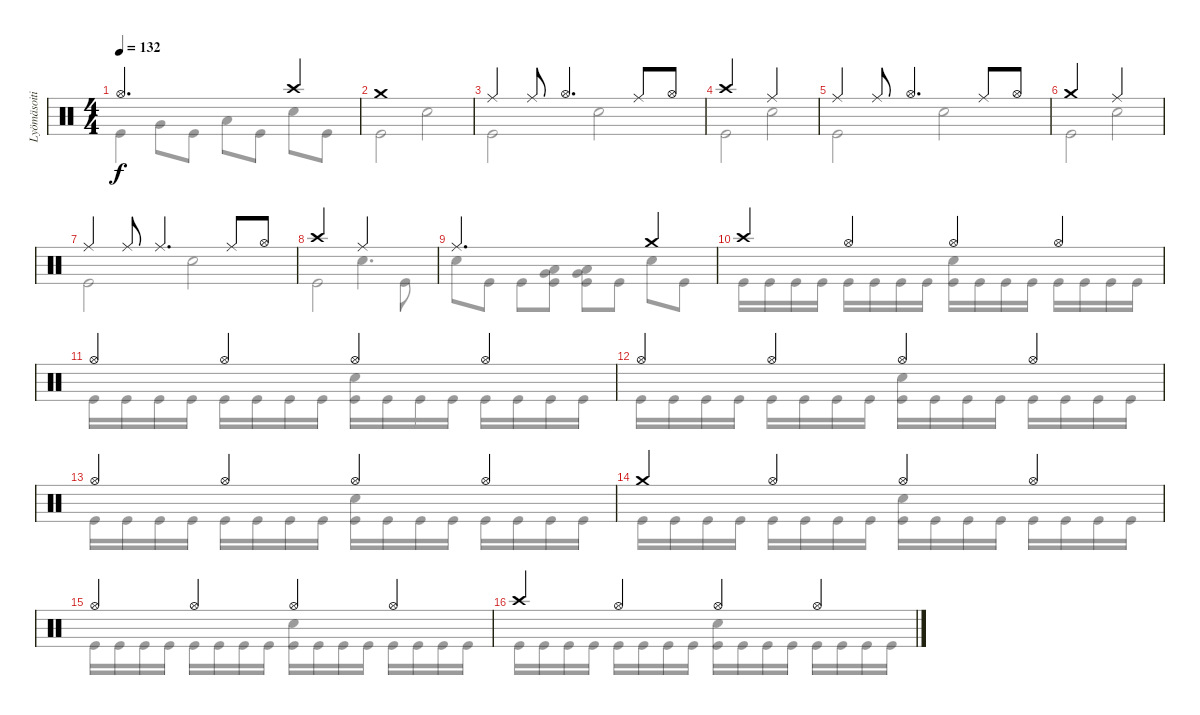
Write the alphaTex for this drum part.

\track ("Lyömäsoitin" "Lyömäsoiti") {instrument percussion}
\staff {score}
\articulation defaults
\voice
\ts (4 4)
\tempo 132
\clef neutral
\ks c "Hi-Hat (open)".2{d dy f} "Crash high (hit)".4
|
"Crash medium (hit)".1 |
"Ride (middle)".4 "Ride (middle)".8 "Hi-Hat (open)".4{d} "Ride (middle)".8 "Hi-Hat (open)".8 |
"Crash high (hit)".2 "Ride (middle)".2 |
"Ride (middle)".4 "Ride (middle)".8 "Hi-Hat (open)".4{d} "Ride (middle)".8 "Hi-Hat (open)".8 |
"Crash medium (hit)".2 "Ride (middle)".2 |
"Ride (middle)".4 "Ride (middle)".8 "Ride (middle)".4{d} "Ride (middle)".8 "Hi-Hat (open)".8 |
"Crash high (hit)".2 "Ride (middle)".2 |
"Ride (middle)".2{d} "Crash medium (hit)".4 |
"Crash high (hit)".4 "Hi-Hat (open)".4 "Hi-Hat (open)".4 "Hi-Hat (open)".4 |
"Hi-Hat (open)".4 "Hi-Hat (open)".4 "Hi-Hat (open)".4 "Hi-Hat (open)".4 |
"Hi-Hat (open)".4 "Hi-Hat (open)".4 "Hi-Hat (open)".4 "Hi-Hat (open)".4 |
"Hi-Hat (open)".4 "Hi-Hat (open)".4 "Hi-Hat (open)".4 "Hi-Hat (open)".4 |
"Crash medium (hit)".4 "Hi-Hat (open)".4 "Hi-Hat (open)".4 "Hi-Hat (open)".4 |
"Hi-Hat (open)".4 "Hi-Hat (open)".4 "Hi-Hat (open)".4 "Hi-Hat (open)".4 |
"Crash high (hit)".4 "Hi-Hat (open)".4 "Hi-Hat (open)".4 "Hi-Hat (open)".4
\voice
\clef neutral
\ottava regular
\simile none
\ks c "Kick (hit)".4{dy f} "Very Low Tom (hit)".8 "Kick (hit)".8 "Low Floor Tom (hit)".8 "Kick (hit)".8 "Electric Snare (hit)".8 "Kick (hit)".8
|
"Kick (hit)".2 "Electric Snare (hit)".2 |
"Kick (hit)".2 "Electric Snare (hit)".2 |
"Kick (hit)".2 "Electric Snare (hit)".2 |
"Kick (hit)".2 "Electric Snare (hit)".2 |
"Kick (hit)".2 "Electric Snare (hit)".2 |
"Kick (hit)".2 "Electric Snare (hit)".2 |
"Kick (hit)".2 "Electric Snare (hit)".4{d} "Kick (hit)".8 |
"Electric Snare (hit)".8 "Kick (hit)".8 "Kick (hit)".8 ("Low Tom (hit)" "Very Low Tom (hit)" "Kick (hit)").8 ("Very Low Tom (hit)" "Low Floor Tom (hit)" "Kick (hit)").8 "Kick (hit)".8 "Electric Snare (hit)".8 "Kick (hit)".8 |
"Kick (hit)".16 "Kick (hit)".16 "Kick (hit)".16 "Kick (hit)".16 "Kick (hit)".16 "Kick (hit)".16 "Kick (hit)".16 "Kick (hit)".16 ("Electric Snare (hit)" "Kick (hit)").16 "Kick (hit)".16 "Kick (hit)".16 "Kick (hit)".16 "Kick (hit)".16 "Kick (hit)".16 "Kick (hit)".16 "Kick (hit)".16 |
"Kick (hit)".16 "Kick (hit)".16 "Kick (hit)".16 "Kick (hit)".16 "Kick (hit)".16 "Kick (hit)".16 "Kick (hit)".16 "Kick (hit)".16 ("Electric Snare (hit)" "Kick (hit)").16 "Kick (hit)".16 "Kick (hit)".16 "Kick (hit)".16 "Kick (hit)".16 "Kick (hit)".16 "Kick (hit)".16 "Kick (hit)".16 |
"Kick (hit)".16 "Kick (hit)".16 "Kick (hit)".16 "Kick (hit)".16 "Kick (hit)".16 "Kick (hit)".16 "Kick (hit)".16 "Kick (hit)".16 ("Electric Snare (hit)" "Kick (hit)").16 "Kick (hit)".16 "Kick (hit)".16 "Kick (hit)".16 "Kick (hit)".16 "Kick (hit)".16 "Kick (hit)".16 "Kick (hit)".16 |
"Kick (hit)".16 "Kick (hit)".16 "Kick (hit)".16 "Kick (hit)".16 "Kick (hit)".16 "Kick (hit)".16 "Kick (hit)".16 "Kick (hit)".16 ("Electric Snare (hit)" "Kick (hit)").16 "Kick (hit)".16 "Kick (hit)".16 "Kick (hit)".16 "Kick (hit)".16 "Kick (hit)".16 "Kick (hit)".16 "Kick (hit)".16 |
"Kick (hit)".16 "Kick (hit)".16 "Kick (hit)".16 "Kick (hit)".16 "Kick (hit)".16 "Kick (hit)".16 "Kick (hit)".16 "Kick (hit)".16 ("Electric Snare (hit)" "Kick (hit)").16 "Kick (hit)".16 "Kick (hit)".16 "Kick (hit)".16 "Kick (hit)".16 "Kick (hit)".16 "Kick (hit)".16 "Kick (hit)".16 |
"Kick (hit)".16 "Kick (hit)".16 "Kick (hit)".16 "Kick (hit)".16 "Kick (hit)".16 "Kick (hit)".16 "Kick (hit)".16 "Kick (hit)".16 ("Electric Snare (hit)" "Kick (hit)").16 "Kick (hit)".16 "Kick (hit)".16 "Kick (hit)".16 "Kick (hit)".16 "Kick (hit)".16 "Kick (hit)".16 "Kick (hit)".16 |
"Kick (hit)".16 "Kick (hit)".16 "Kick (hit)".16 "Kick (hit)".16 "Kick (hit)".16 "Kick (hit)".16 "Kick (hit)".16 "Kick (hit)".16 ("Electric Snare (hit)" "Kick (hit)").16 "Kick (hit)".16 "Kick (hit)".16 "Kick (hit)".16 "Kick (hit)".16 "Kick (hit)".16 "Kick (hit)".16 "Kick (hit)".16
